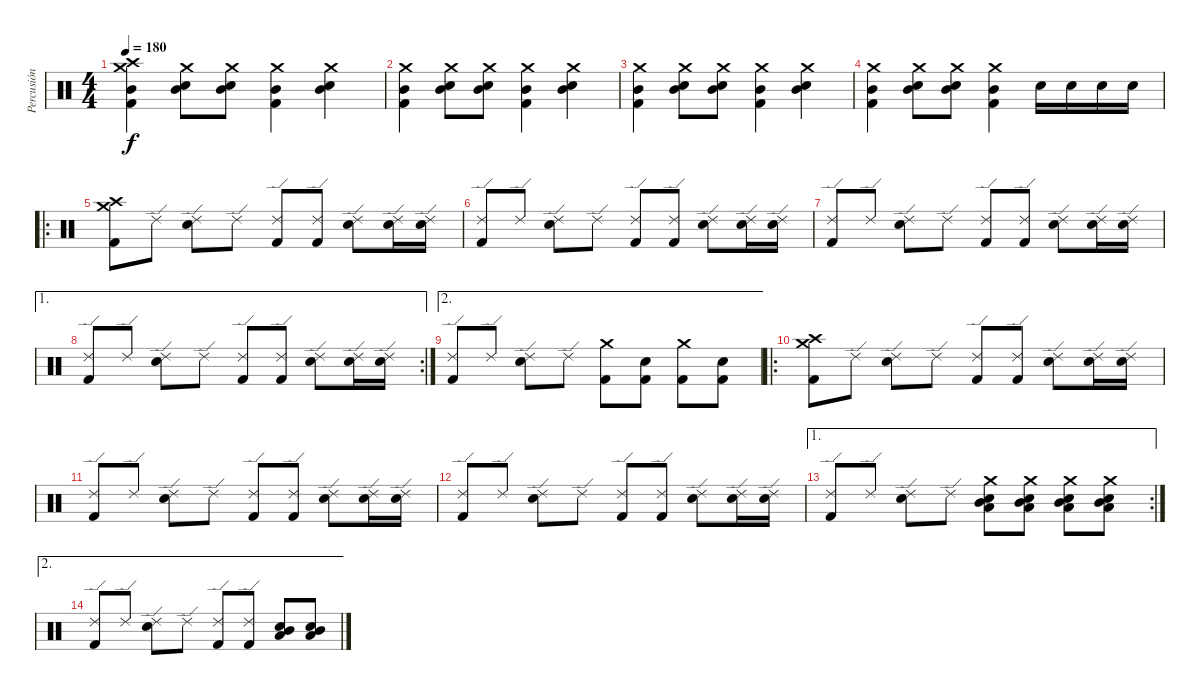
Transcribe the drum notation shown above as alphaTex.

\track ("Percusión" "Percusión") {instrument percussion}
\staff {score}
\articulation defaults
\ts (4 4)
\tempo 180
\clef neutral
\ks c
("Crash medium (hit)" "Crash high (hit)" "Mid Tom (hit)" "Kick (hit) 2").4{dy f} ("Crash medium (hit)" "Mid Tom (hit)" "Snare (hit) 2").8 ("Crash medium (hit)" "Mid Tom (hit)" "Snare (hit) 2").8 ("Crash medium (hit)" "Mid Tom (hit)" "Kick (hit) 2").4 ("Crash medium (hit)" "Mid Tom (hit)" "Snare (hit) 2").4 |
("Crash medium (hit)" "Mid Tom (hit)" "Kick (hit) 2").4 ("Crash medium (hit)" "Mid Tom (hit)" "Snare (hit) 2").8 ("Crash medium (hit)" "Mid Tom (hit)" "Snare (hit) 2").8 ("Crash medium (hit)" "Mid Tom (hit)" "Kick (hit) 2").4 ("Crash medium (hit)" "Mid Tom (hit)" "Snare (hit) 2").4 |
("Crash medium (hit)" "Mid Tom (hit)" "Kick (hit) 2").4 ("Crash medium (hit)" "Mid Tom (hit)" "Snare (hit) 2").8 ("Crash medium (hit)" "Mid Tom (hit)" "Snare (hit) 2").8 ("Crash medium (hit)" "Mid Tom (hit)" "Kick (hit) 2").4 ("Crash medium (hit)" "Mid Tom (hit)" "Snare (hit) 2").4 |
("Crash medium (hit)" "Mid Tom (hit)" "Kick (hit) 2").4 ("Crash medium (hit)" "Mid Tom (hit)" "Snare (hit) 2").8 ("Crash medium (hit)" "Mid Tom (hit)" "Snare (hit) 2").8 ("Crash medium (hit)" "Mid Tom (hit)" "Kick (hit) 2").4 "Snare (hit) 2".16 "Snare (hit) 2".16 "Snare (hit) 2".16 "Snare (hit) 2".16 |
\ro
("Crash medium (hit)" "Crash high (hit)" "Kick (hit) 2").8 "Ride (edge) 2".8 ("Ride (edge) 2" "Snare (hit) 2").8 "Ride (edge) 2".8 ("Ride (edge) 2" "Kick (hit) 2").8 ("Ride (edge) 2" "Kick (hit) 2").8 ("Ride (edge) 2" "Snare (hit) 2").8 ("Ride (edge) 2" "Snare (hit) 2").16 ("Ride (edge) 2" "Snare (hit) 2").16 |
("Ride (edge) 2" "Kick (hit) 2").8 "Ride (edge) 2".8 ("Ride (edge) 2" "Snare (hit) 2").8 "Ride (edge) 2".8 ("Ride (edge) 2" "Kick (hit) 2").8 ("Ride (edge) 2" "Kick (hit) 2").8 ("Ride (edge) 2" "Snare (hit) 2").8 ("Ride (edge) 2" "Snare (hit) 2").16 ("Ride (edge) 2" "Snare (hit) 2").16 |
("Ride (edge) 2" "Kick (hit) 2").8 "Ride (edge) 2".8 ("Ride (edge) 2" "Snare (hit) 2").8 "Ride (edge) 2".8 ("Ride (edge) 2" "Kick (hit) 2").8 ("Ride (edge) 2" "Kick (hit) 2").8 ("Ride (edge) 2" "Snare (hit) 2").8 ("Ride (edge) 2" "Snare (hit) 2").16 ("Ride (edge) 2" "Snare (hit) 2").16 |
\ae 1
\rc 2
("Ride (edge) 2" "Kick (hit) 2").8 "Ride (edge) 2".8 ("Ride (edge) 2" "Snare (hit) 2").8 "Ride (edge) 2".8 ("Ride (edge) 2" "Kick (hit) 2").8 ("Ride (edge) 2" "Kick (hit) 2").8 ("Ride (edge) 2" "Snare (hit) 2").8 ("Ride (edge) 2" "Snare (hit) 2").16 ("Ride (edge) 2" "Snare (hit) 2").16 |
\ae 2
("Ride (edge) 2" "Kick (hit) 2").8 "Ride (edge) 2".8 ("Ride (edge) 2" "Snare (hit) 2").8 "Ride (edge) 2".8 ("Crash medium (hit)" "Kick (hit) 2").8 ("Snare (hit) 2" "Kick (hit) 2").8 ("Crash medium (hit)" "Kick (hit) 2").8 ("Snare (hit) 2" "Kick (hit) 2").8 |
\ro
("Crash medium (hit)" "Crash high (hit)" "Kick (hit) 2").8 "Ride (edge) 2".8 ("Ride (edge) 2" "Snare (hit) 2").8 "Ride (edge) 2".8 ("Ride (edge) 2" "Kick (hit) 2").8 ("Ride (edge) 2" "Kick (hit) 2").8 ("Ride (edge) 2" "Snare (hit) 2").8 ("Ride (edge) 2" "Snare (hit) 2").16 ("Ride (edge) 2" "Snare (hit) 2").16 |
("Ride (edge) 2" "Kick (hit) 2").8 "Ride (edge) 2".8 ("Ride (edge) 2" "Snare (hit) 2").8 "Ride (edge) 2".8 ("Ride (edge) 2" "Kick (hit) 2").8 ("Ride (edge) 2" "Kick (hit) 2").8 ("Ride (edge) 2" "Snare (hit) 2").8 ("Ride (edge) 2" "Snare (hit) 2").16 ("Ride (edge) 2" "Snare (hit) 2").16 |
("Ride (edge) 2" "Kick (hit) 2").8 "Ride (edge) 2".8 ("Ride (edge) 2" "Snare (hit) 2").8 "Ride (edge) 2".8 ("Ride (edge) 2" "Kick (hit) 2").8 ("Ride (edge) 2" "Kick (hit) 2").8 ("Ride (edge) 2" "Snare (hit) 2").8 ("Ride (edge) 2" "Snare (hit) 2").16 ("Ride (edge) 2" "Snare (hit) 2").16 |
\ae 1
\rc 2
("Ride (edge) 2" "Kick (hit) 2").8 "Ride (edge) 2".8 ("Ride (edge) 2" "Snare (hit) 2").8 "Ride (edge) 2".8 ("Crash medium (hit)" "Low Tom (hit)" "Snare (hit) 2" "Mid Tom (hit)").8 ("Crash medium (hit)" "Low Tom (hit)" "Snare (hit) 2" "Mid Tom (hit)").8 ("Crash medium (hit)" "Low Tom (hit)" "Snare (hit) 2" "Mid Tom (hit)").8 ("Crash medium (hit)" "Low Tom (hit)" "Snare (hit) 2" "Mid Tom (hit)").8 |
\ae 2
("Ride (edge) 2" "Kick (hit) 2").8 "Ride (edge) 2".8 ("Ride (edge) 2" "Snare (hit) 2").8 "Ride (edge) 2".8 ("Ride (edge) 2" "Kick (hit) 2").8 ("Ride (edge) 2" "Kick (hit) 2").8 ("Mid Tom (hit)" "Snare (hit) 2" "Low Tom (hit)").8 ("Mid Tom (hit)" "Snare (hit) 2" "Low Tom (hit)").8
